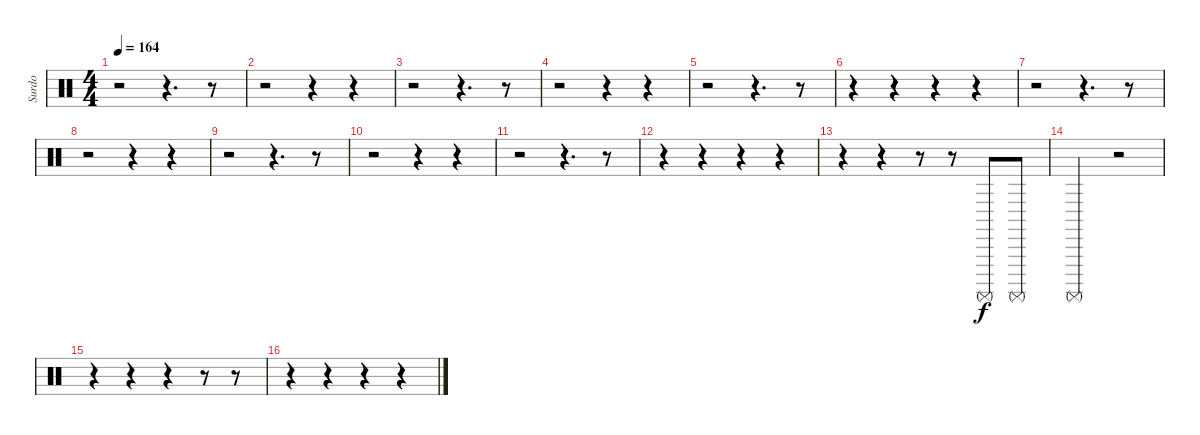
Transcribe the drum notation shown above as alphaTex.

\track ("Surdo" "Surdo") {instrument percussion}
\staff {score}
\articulation defaults
\ts (4 4)
\tempo 164
\clef neutral
\ks c
r.2{dy f} r.4{d} r.8 |
r.2 r.4 r.4 |
r.2 r.4{d} r.8 |
r.2 r.4 r.4 |
r.2 r.4{d} r.8 |
r.4 r.4 r.4 r.4 |
r.2 r.4{d} r.8 |
r.2 r.4 r.4 |
r.2 r.4{d} r.8 |
r.2 r.4 r.4 |
r.2 r.4{d} r.8 |
r.4 r.4 r.4 r.4 |
r.4 r.4 r.8 r.8 "Surdo (mute)".8 "Surdo (mute)".8 |
"Surdo (mute)".2 r.2 |
r.4 r.4 r.4 r.8 r.8 |
r.4 r.4 r.4 r.4
